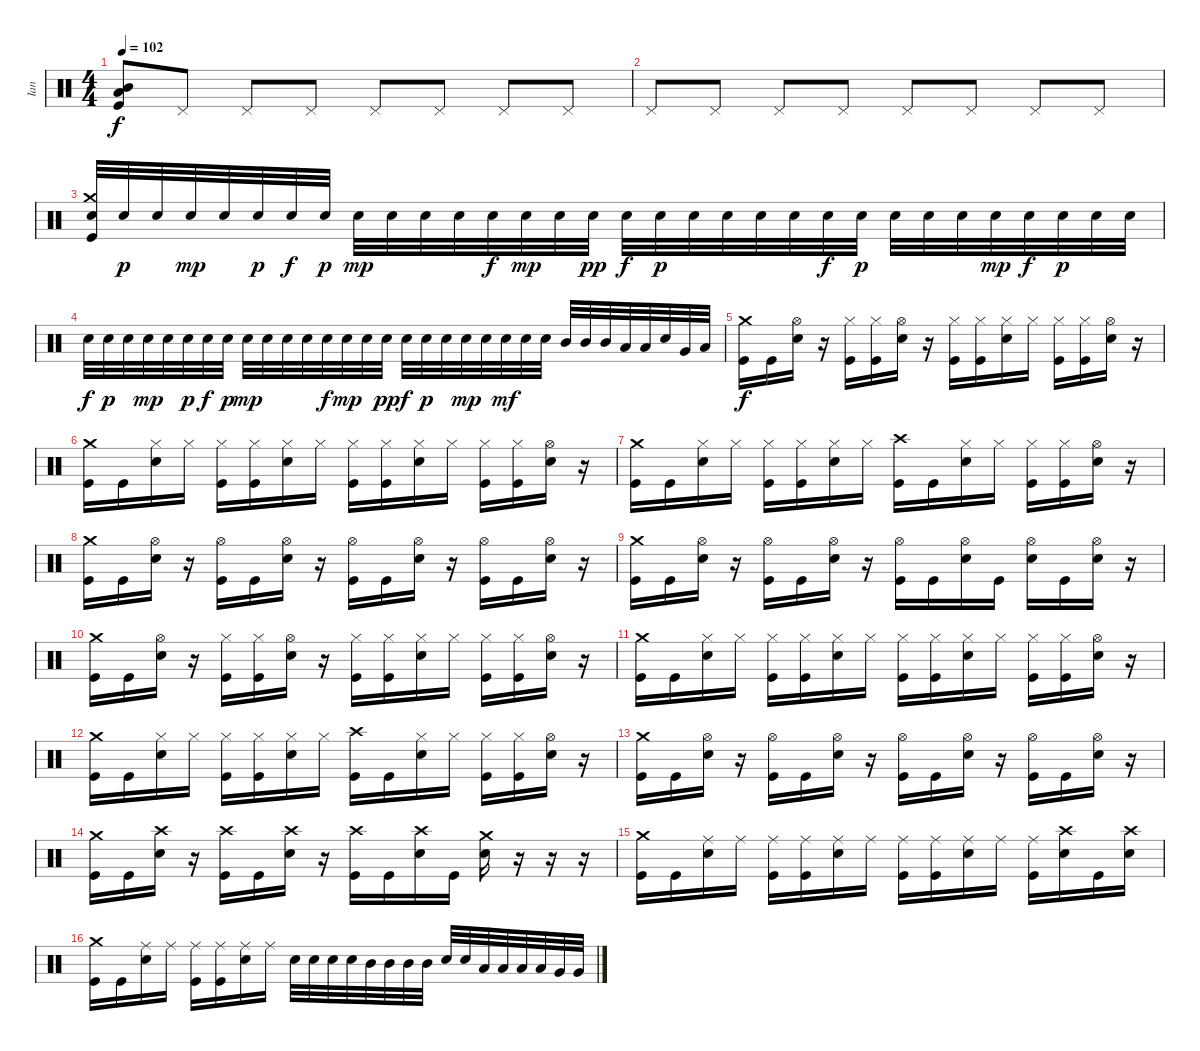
\track ("Ian" "Ian") {instrument percussion}
\staff {score}
\articulation defaults
\ts (4 4)
\tempo 102
\clef neutral
\ks c
("Mid Tom (hit)" "Low Tom (hit)" "Kick (hit)").8{dy f} "Pedal Hi-Hat (hit)".8 "Pedal Hi-Hat (hit)".8 "Pedal Hi-Hat (hit)".8 "Pedal Hi-Hat (hit)".8 "Pedal Hi-Hat (hit)".8 "Pedal Hi-Hat (hit)".8 "Pedal Hi-Hat (hit)".8 |
"Pedal Hi-Hat (hit)".8 "Pedal Hi-Hat (hit)".8 "Pedal Hi-Hat (hit)".8 "Pedal Hi-Hat (hit)".8 "Pedal Hi-Hat (hit)".8 "Pedal Hi-Hat (hit)".8 "Pedal Hi-Hat (hit)".8 "Pedal Hi-Hat (hit)".8 |
("Crash medium (hit)" "Electric Snare (hit)" "Kick (hit)").32 "Electric Snare (hit)".32{dy p} "Electric Snare (hit)".32 "Electric Snare (hit)".32{dy mp} "Electric Snare (hit)".32 "Electric Snare (hit)".32{dy p} "Electric Snare (hit)".32{dy f} "Electric Snare (hit)".32{dy p} "Electric Snare (hit)".32{dy mp} "Electric Snare (hit)".32 "Electric Snare (hit)".32 "Electric Snare (hit)".32 "Electric Snare (hit)".32{dy f} "Electric Snare (hit)".32{dy mp} "Electric Snare (hit)".32 "Electric Snare (hit)".32{dy pp} "Electric Snare (hit)".32{dy f} "Electric Snare (hit)".32{dy p} "Electric Snare (hit)".32 "Electric Snare (hit)".32 "Electric Snare (hit)".32 "Electric Snare (hit)".32 "Electric Snare (hit)".32{dy f} "Electric Snare (hit)".32{dy p} "Electric Snare (hit)".32 "Electric Snare (hit)".32 "Electric Snare (hit)".32 "Electric Snare (hit)".32{dy mp} "Electric Snare (hit)".32{dy f} "Electric Snare (hit)".32{dy p} "Electric Snare (hit)".32 "Electric Snare (hit)".32 |
"Electric Snare (hit)".32{dy f} "Electric Snare (hit)".32{dy p} "Electric Snare (hit)".32 "Electric Snare (hit)".32{dy mp} "Electric Snare (hit)".32 "Electric Snare (hit)".32{dy p} "Electric Snare (hit)".32{dy f} "Electric Snare (hit)".32{dy p} "Electric Snare (hit)".32{dy mp} "Electric Snare (hit)".32 "Electric Snare (hit)".32 "Electric Snare (hit)".32 "Electric Snare (hit)".32{dy f} "Electric Snare (hit)".32{dy mp} "Electric Snare (hit)".32 "Electric Snare (hit)".32{dy pp} "Electric Snare (hit)".32{dy f} "Electric Snare (hit)".32{dy p} "Electric Snare (hit)".32 "Electric Snare (hit)".32{dy mp} "Electric Snare (hit)".32 "Electric Snare (hit)".32{dy mf} "Electric Snare (hit)".32 "Electric Snare (hit)".32 "Mid Tom (hit)".32 "Mid Tom (hit)".32 "Mid Tom (hit)".32 "Low Tom (hit)".32 "Low Tom (hit)".32 "Electric Snare (hit)".32 "Very Low Tom (hit)".32 "Low Floor Tom (hit)".32 |
("Crash medium (hit)" "Kick (hit)").16{dy f} "Kick (hit)".16 ("Hi-Hat (open)" "Electric Snare (hit)").16 r.16 ("Hi-Hat (closed)" "Kick (hit)").16 ("Hi-Hat (closed)" "Kick (hit)").16 ("Hi-Hat (open)" "Electric Snare (hit)").16 r.16 ("Hi-Hat (closed)" "Kick (hit)").16 ("Hi-Hat (closed)" "Kick (hit)").16 ("Hi-Hat (closed)" "Electric Snare (hit)").16 "Hi-Hat (closed)".16 ("Hi-Hat (closed)" "Kick (hit)").16 ("Hi-Hat (closed)" "Kick (hit)").16 ("Hi-Hat (open)" "Electric Snare (hit)").16 r.16 |
("Crash medium (hit)" "Kick (hit)").16 "Kick (hit)".16 ("Hi-Hat (closed)" "Electric Snare (hit)").16 "Hi-Hat (closed)".16 ("Hi-Hat (closed)" "Kick (hit)").16 ("Hi-Hat (closed)" "Kick (hit)").16 ("Hi-Hat (closed)" "Electric Snare (hit)").16 "Hi-Hat (closed)".16 ("Hi-Hat (closed)" "Kick (hit)").16 ("Hi-Hat (closed)" "Kick (hit)").16 ("Hi-Hat (closed)" "Electric Snare (hit)").16 "Hi-Hat (closed)".16 ("Hi-Hat (closed)" "Kick (hit)").16 ("Hi-Hat (closed)" "Kick (hit)").16 ("Hi-Hat (open)" "Electric Snare (hit)").16 r.16 |
("Crash medium (hit)" "Kick (hit)").16 "Kick (hit)".16 ("Hi-Hat (closed)" "Electric Snare (hit)").16 "Hi-Hat (closed)".16 ("Hi-Hat (closed)" "Kick (hit)").16 ("Hi-Hat (closed)" "Kick (hit)").16 ("Hi-Hat (closed)" "Electric Snare (hit)").16 "Hi-Hat (closed)".16 ("Crash high (hit)" "Kick (hit)").16 "Kick (hit)".16 ("Hi-Hat (closed)" "Electric Snare (hit)").16 "Hi-Hat (closed)".16 ("Hi-Hat (closed)" "Kick (hit)").16 ("Hi-Hat (closed)" "Kick (hit)").16 ("Hi-Hat (open)" "Electric Snare (hit)").16 r.16 |
("Crash medium (hit)" "Kick (hit)").16 "Kick (hit)".16 ("Hi-Hat (open)" "Electric Snare (hit)").16 r.16 ("Hi-Hat (open)" "Kick (hit)").16 "Kick (hit)".16 ("Hi-Hat (open)" "Electric Snare (hit)").16 r.16 ("Hi-Hat (open)" "Kick (hit)").16 "Kick (hit)".16 ("Hi-Hat (open)" "Electric Snare (hit)").16 r.16 ("Hi-Hat (open)" "Kick (hit)").16 "Kick (hit)".16 ("Hi-Hat (open)" "Electric Snare (hit)").16 r.16 |
("Crash medium (hit)" "Kick (hit)").16 "Kick (hit)".16 ("Hi-Hat (open)" "Electric Snare (hit)").16 r.16 ("Hi-Hat (open)" "Kick (hit)").16 "Kick (hit)".16 ("Hi-Hat (open)" "Electric Snare (hit)").16 r.16 ("Hi-Hat (open)" "Kick (hit)").16 "Kick (hit)".16 ("Hi-Hat (open)" "Electric Snare (hit)").16 "Kick (hit)".16 ("Hi-Hat (open)" "Electric Snare (hit)").16 "Kick (hit)".16 ("Hi-Hat (open)" "Electric Snare (hit)").16 r.16 |
("Crash medium (hit)" "Kick (hit)").16 "Kick (hit)".16 ("Hi-Hat (open)" "Electric Snare (hit)").16 r.16 ("Hi-Hat (closed)" "Kick (hit)").16 ("Hi-Hat (closed)" "Kick (hit)").16 ("Hi-Hat (open)" "Electric Snare (hit)").16 r.16 ("Hi-Hat (closed)" "Kick (hit)").16 ("Hi-Hat (closed)" "Kick (hit)").16 ("Hi-Hat (closed)" "Electric Snare (hit)").16 "Hi-Hat (closed)".16 ("Hi-Hat (closed)" "Kick (hit)").16 ("Hi-Hat (closed)" "Kick (hit)").16 ("Hi-Hat (open)" "Electric Snare (hit)").16 r.16 |
("Crash medium (hit)" "Kick (hit)").16 "Kick (hit)".16 ("Hi-Hat (closed)" "Electric Snare (hit)").16 "Hi-Hat (closed)".16 ("Hi-Hat (closed)" "Kick (hit)").16 ("Hi-Hat (closed)" "Kick (hit)").16 ("Hi-Hat (closed)" "Electric Snare (hit)").16 "Hi-Hat (closed)".16 ("Hi-Hat (closed)" "Kick (hit)").16 ("Hi-Hat (closed)" "Kick (hit)").16 ("Hi-Hat (closed)" "Electric Snare (hit)").16 "Hi-Hat (closed)".16 ("Hi-Hat (closed)" "Kick (hit)").16 ("Hi-Hat (closed)" "Kick (hit)").16 ("Hi-Hat (open)" "Electric Snare (hit)").16 r.16 |
("Crash medium (hit)" "Kick (hit)").16 "Kick (hit)".16 ("Hi-Hat (closed)" "Electric Snare (hit)").16 "Hi-Hat (closed)".16 ("Hi-Hat (closed)" "Kick (hit)").16 ("Hi-Hat (closed)" "Kick (hit)").16 ("Hi-Hat (closed)" "Electric Snare (hit)").16 "Hi-Hat (closed)".16 ("Crash high (hit)" "Kick (hit)").16 "Kick (hit)".16 ("Hi-Hat (closed)" "Electric Snare (hit)").16 "Hi-Hat (closed)".16 ("Hi-Hat (closed)" "Kick (hit)").16 ("Hi-Hat (closed)" "Kick (hit)").16 ("Hi-Hat (open)" "Electric Snare (hit)").16 r.16 |
("Crash medium (hit)" "Kick (hit)").16 "Kick (hit)".16 ("Hi-Hat (open)" "Electric Snare (hit)").16 r.16 ("Hi-Hat (open)" "Kick (hit)").16 "Kick (hit)".16 ("Hi-Hat (open)" "Electric Snare (hit)").16 r.16 ("Hi-Hat (open)" "Kick (hit)").16 "Kick (hit)".16 ("Hi-Hat (open)" "Electric Snare (hit)").16 r.16 ("Hi-Hat (open)" "Kick (hit)").16 "Kick (hit)".16 ("Hi-Hat (open)" "Electric Snare (hit)").16 r.16 |
("Crash medium (hit)" "Kick (hit)").16 "Kick (hit)".16 ("Crash high (hit)" "Electric Snare (hit)").16 r.16 ("Crash high (hit)" "Kick (hit)").16 "Kick (hit)".16 ("Crash high (hit)" "Electric Snare (hit)").16 r.16 ("Crash high (hit)" "Kick (hit)").16 "Kick (hit)".16 ("Crash high (hit)" "Electric Snare (hit)").16 "Kick (hit)".16 ("Crash medium (hit)" "Electric Snare (hit)").16 r.16 r.16 r.16 |
("Crash medium (hit)" "Kick (hit)").16 "Kick (hit)".16 ("Ride (middle)" "Electric Snare (hit)").16 "Ride (middle)".16 ("Ride (middle)" "Kick (hit)").16 ("Ride (middle)" "Kick (hit)").16 ("Ride (middle)" "Electric Snare (hit)").16 "Ride (middle)".16 ("Ride (middle)" "Kick (hit)").16 ("Ride (middle)" "Kick (hit)").16 ("Ride (middle)" "Electric Snare (hit)").16 "Ride (middle)".16 ("Ride (middle)" "Kick (hit)").16 ("Crash high (hit)" "Electric Snare (hit)").16 "Kick (hit)".16 ("Crash high (hit)" "Electric Snare (hit)").16 |
("Crash medium (hit)" "Kick (hit)").16 "Kick (hit)".16 ("Ride (middle)" "Electric Snare (hit)").16 "Ride (middle)".16 ("Ride (middle)" "Kick (hit)").16 ("Ride (middle)" "Kick (hit)").16 ("Ride (middle)" "Electric Snare (hit)").16 "Ride (middle)".16 "Electric Snare (hit)".32 "Electric Snare (hit)".32 "Electric Snare (hit)".32 "Electric Snare (hit)".32 "Mid Tom (hit)".32 "Mid Tom (hit)".32 "Mid Tom (hit)".32 "Mid Tom (hit)".32 "Electric Snare (hit)".32 "Electric Snare (hit)".32 "Low Tom (hit)".32 "Low Tom (hit)".32 "Low Tom (hit)".32 "Low Tom (hit)".32 "Very Low Tom (hit)".32 "Very Low Tom (hit)".32
